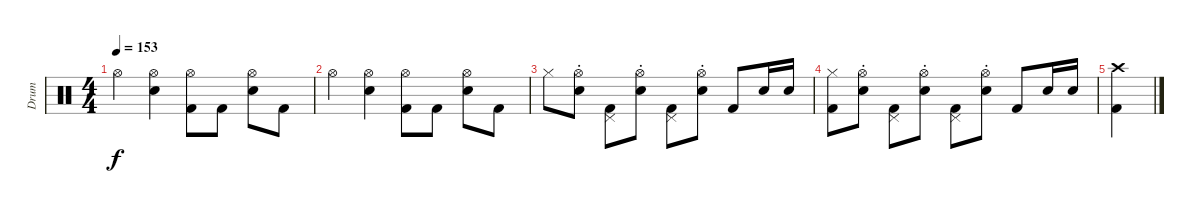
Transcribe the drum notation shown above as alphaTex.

\track ("Drum" "Drum") {instrument percussion}
\staff {score}
\articulation defaults
\ts (4 4)
\tempo 153
\clef neutral
\ks c "Hi-Hat (open)".4{dy f}
("Hi-Hat (open)" "Snare (hit) 2").4 ("Hi-Hat (open)" "Kick (hit) 2").8 "Kick (hit) 2".8 ("Hi-Hat (open)" "Snare (hit) 2").8 "Kick (hit) 2".8 |
"Hi-Hat (open)".4 ("Hi-Hat (open)" "Snare (hit) 2").4 ("Hi-Hat (open)" "Kick (hit) 2").8 "Kick (hit) 2".8 ("Hi-Hat (open)" "Snare (hit) 2").8 "Kick (hit) 2".8 |
"Hi-Hat (closed)".8 ("Hi-Hat (open)"{st} "Snare (hit) 2").8 ("Pedal Hi-Hat (hit)" "Kick (hit) 2").8 ("Hi-Hat (open)"{st} "Snare (hit) 2").8 ("Pedal Hi-Hat (hit)" "Kick (hit) 2").8 ("Hi-Hat (open)"{st} "Snare (hit) 2").8 "Kick (hit) 2".8 "Snare (hit) 2".16 "Snare (hit) 2".16 |
("Hi-Hat (closed)" "Kick (hit) 2").8 ("Hi-Hat (open)"{st} "Snare (hit) 2").8 ("Pedal Hi-Hat (hit)" "Kick (hit) 2").8 ("Hi-Hat (open)"{st} "Snare (hit) 2").8 ("Pedal Hi-Hat (hit)" "Kick (hit) 2").8 ("Hi-Hat (open)"{st} "Snare (hit) 2").8 "Kick (hit) 2".8 "Snare (hit) 2".16 "Snare (hit) 2".16 |
("Crash high (hit)" "Kick (hit) 2").4
